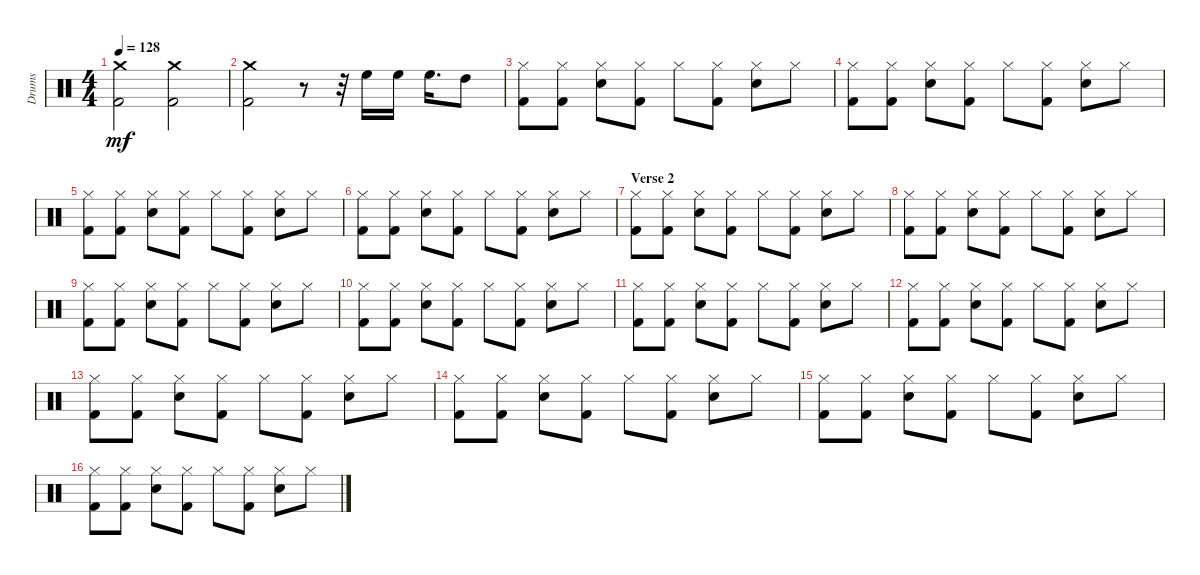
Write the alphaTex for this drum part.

\track ("Drums" "Drums") {instrument percussion}
\staff {score}
\articulation defaults
\ts (4 4)
\tempo 128
\clef neutral
\ks c
("Crash medium (hit)" "Kick (hit) 2").2{dy mf} ("Crash medium (hit)" "Kick (hit) 2").2 |
("Crash medium (hit)" "Kick (hit) 2").2 r.8 r.32 "High Floor Tom (hit)".16 "High Floor Tom (hit)".16 "High Floor Tom (hit)".16{d} "High Tom (hit)".8 |
("Hi-Hat (closed)" "Kick (hit) 2").8 ("Hi-Hat (closed)" "Kick (hit) 2").8 ("Hi-Hat (closed)" "Snare (hit) 2").8 ("Hi-Hat (closed)" "Kick (hit) 2").8 "Hi-Hat (closed)".8 ("Hi-Hat (closed)" "Kick (hit) 2").8 ("Hi-Hat (closed)" "Snare (hit) 2").8 "Hi-Hat (closed)".8 |
("Hi-Hat (closed)" "Kick (hit) 2").8 ("Hi-Hat (closed)" "Kick (hit) 2").8 ("Hi-Hat (closed)" "Snare (hit) 2").8 ("Hi-Hat (closed)" "Kick (hit) 2").8 "Hi-Hat (closed)".8 ("Hi-Hat (closed)" "Kick (hit) 2").8 ("Hi-Hat (closed)" "Snare (hit) 2").8 "Hi-Hat (closed)".8 |
("Hi-Hat (closed)" "Kick (hit) 2").8 ("Hi-Hat (closed)" "Kick (hit) 2").8 ("Hi-Hat (closed)" "Snare (hit) 2").8 ("Hi-Hat (closed)" "Kick (hit) 2").8 "Hi-Hat (closed)".8 ("Hi-Hat (closed)" "Kick (hit) 2").8 ("Hi-Hat (closed)" "Snare (hit) 2").8 "Hi-Hat (closed)".8 |
("Hi-Hat (closed)" "Kick (hit) 2").8 ("Hi-Hat (closed)" "Kick (hit) 2").8 ("Hi-Hat (closed)" "Snare (hit) 2").8 ("Hi-Hat (closed)" "Kick (hit) 2").8 "Hi-Hat (closed)".8 ("Hi-Hat (closed)" "Kick (hit) 2").8 ("Hi-Hat (closed)" "Snare (hit) 2").8 "Hi-Hat (closed)".8 |
\section ("" "Verse 2")
("Hi-Hat (closed)" "Kick (hit) 2").8 ("Hi-Hat (closed)" "Kick (hit) 2").8 ("Hi-Hat (closed)" "Snare (hit) 2").8 ("Hi-Hat (closed)" "Kick (hit) 2").8 "Hi-Hat (closed)".8 ("Hi-Hat (closed)" "Kick (hit) 2").8 ("Hi-Hat (closed)" "Snare (hit) 2").8 "Hi-Hat (closed)".8 |
("Hi-Hat (closed)" "Kick (hit) 2").8 ("Hi-Hat (closed)" "Kick (hit) 2").8 ("Hi-Hat (closed)" "Snare (hit) 2").8 ("Hi-Hat (closed)" "Kick (hit) 2").8 "Hi-Hat (closed)".8 ("Hi-Hat (closed)" "Kick (hit) 2").8 ("Hi-Hat (closed)" "Snare (hit) 2").8 "Hi-Hat (closed)".8 |
("Hi-Hat (closed)" "Kick (hit) 2").8 ("Hi-Hat (closed)" "Kick (hit) 2").8 ("Hi-Hat (closed)" "Snare (hit) 2").8 ("Hi-Hat (closed)" "Kick (hit) 2").8 "Hi-Hat (closed)".8 ("Hi-Hat (closed)" "Kick (hit) 2").8 ("Hi-Hat (closed)" "Snare (hit) 2").8 "Hi-Hat (closed)".8 |
("Hi-Hat (closed)" "Kick (hit) 2").8 ("Hi-Hat (closed)" "Kick (hit) 2").8 ("Hi-Hat (closed)" "Snare (hit) 2").8 ("Hi-Hat (closed)" "Kick (hit) 2").8 "Hi-Hat (closed)".8 ("Hi-Hat (closed)" "Kick (hit) 2").8 ("Hi-Hat (closed)" "Snare (hit) 2").8 "Hi-Hat (closed)".8 |
("Hi-Hat (closed)" "Kick (hit) 2").8 ("Hi-Hat (closed)" "Kick (hit) 2").8 ("Hi-Hat (closed)" "Snare (hit) 2").8 ("Hi-Hat (closed)" "Kick (hit) 2").8 "Hi-Hat (closed)".8 ("Hi-Hat (closed)" "Kick (hit) 2").8 ("Hi-Hat (closed)" "Snare (hit) 2").8 "Hi-Hat (closed)".8 |
("Hi-Hat (closed)" "Kick (hit) 2").8 ("Hi-Hat (closed)" "Kick (hit) 2").8 ("Hi-Hat (closed)" "Snare (hit) 2").8 ("Hi-Hat (closed)" "Kick (hit) 2").8 "Hi-Hat (closed)".8 ("Hi-Hat (closed)" "Kick (hit) 2").8 ("Hi-Hat (closed)" "Snare (hit) 2").8 "Hi-Hat (closed)".8 |
("Hi-Hat (closed)" "Kick (hit) 2").8 ("Hi-Hat (closed)" "Kick (hit) 2").8 ("Hi-Hat (closed)" "Snare (hit) 2").8 ("Hi-Hat (closed)" "Kick (hit) 2").8 "Hi-Hat (closed)".8 ("Hi-Hat (closed)" "Kick (hit) 2").8 ("Hi-Hat (closed)" "Snare (hit) 2").8 "Hi-Hat (closed)".8 |
("Hi-Hat (closed)" "Kick (hit) 2").8 ("Hi-Hat (closed)" "Kick (hit) 2").8 ("Hi-Hat (closed)" "Snare (hit) 2").8 ("Hi-Hat (closed)" "Kick (hit) 2").8 "Hi-Hat (closed)".8 ("Hi-Hat (closed)" "Kick (hit) 2").8 ("Hi-Hat (closed)" "Snare (hit) 2").8 "Hi-Hat (closed)".8 |
("Hi-Hat (closed)" "Kick (hit) 2").8 ("Hi-Hat (closed)" "Kick (hit) 2").8 ("Hi-Hat (closed)" "Snare (hit) 2").8 ("Hi-Hat (closed)" "Kick (hit) 2").8 "Hi-Hat (closed)".8 ("Hi-Hat (closed)" "Kick (hit) 2").8 ("Hi-Hat (closed)" "Snare (hit) 2").8 "Hi-Hat (closed)".8 |
("Hi-Hat (closed)" "Kick (hit) 2").8 ("Hi-Hat (closed)" "Kick (hit) 2").8 ("Hi-Hat (closed)" "Snare (hit) 2").8 ("Hi-Hat (closed)" "Kick (hit) 2").8 "Hi-Hat (closed)".8 ("Hi-Hat (closed)" "Kick (hit) 2").8 ("Hi-Hat (closed)" "Snare (hit) 2").8 "Hi-Hat (closed)".8
